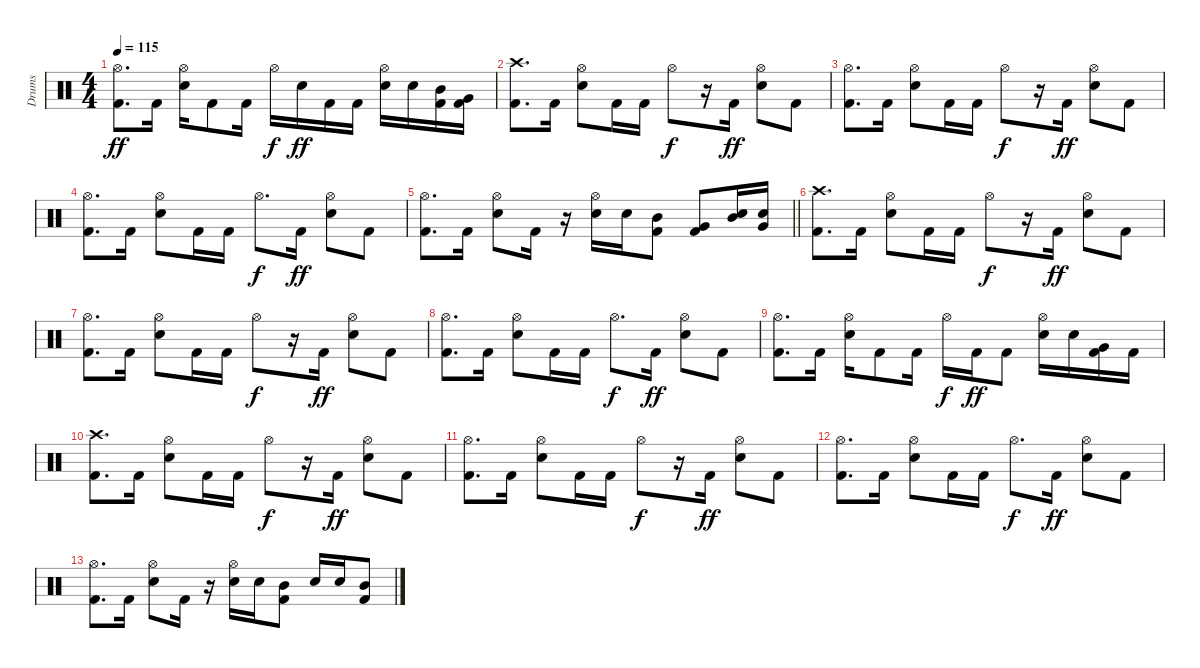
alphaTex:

\track ("Drums" "Drums") {instrument percussion}
\staff {score}
\articulation defaults
\ts (4 4)
\tempo 115
\clef neutral
\ks c
("Hi-Hat (open)" "Kick (hit) 2").8{d dy ff} "Kick (hit) 2".16 ("Hi-Hat (open)" "Snare (hit) 2").16 "Kick (hit) 2".8 "Kick (hit) 2".16 "Hi-Hat (open)".16{dy f} "Snare (hit) 2".16{dy ff} "Kick (hit) 2".16 "Kick (hit) 2".16 ("Hi-Hat (open)" "Snare (hit) 2").16 "Snare (hit) 2".16 ("Mid Tom (hit)" "Kick (hit) 2").16 ("Very Low Tom (hit)" "Kick (hit) 2").16 |
("Crash high (hit)" "Kick (hit) 2").8{d volume 3} "Kick (hit) 2".16 ("Hi-Hat (open)" "Snare (hit) 2").8 "Kick (hit) 2".16 "Kick (hit) 2".16 "Hi-Hat (open)".8{dy f} r.16 "Kick (hit) 2".16{dy ff} ("Hi-Hat (open)" "Snare (hit) 2").8 "Kick (hit) 2".8 |
("Hi-Hat (open)" "Kick (hit) 2").8{d} "Kick (hit) 2".16 ("Hi-Hat (open)" "Snare (hit) 2").8 "Kick (hit) 2".16 "Kick (hit) 2".16 "Hi-Hat (open)".8{dy f} r.16 "Kick (hit) 2".16{dy ff} ("Hi-Hat (open)" "Snare (hit) 2").8 "Kick (hit) 2".8 |
("Hi-Hat (open)" "Kick (hit) 2").8{d} "Kick (hit) 2".16 ("Hi-Hat (open)" "Snare (hit) 2").8 "Kick (hit) 2".16 "Kick (hit) 2".16 "Hi-Hat (open)".8{d dy f} "Kick (hit) 2".16{dy ff} ("Hi-Hat (open)" "Snare (hit) 2").8 "Kick (hit) 2".8 |
\barLineRight lightlight
("Hi-Hat (open)" "Kick (hit) 2").8{d} "Kick (hit) 2".16 ("Hi-Hat (open)" "Snare (hit) 2").8 "Kick (hit) 2".16 r.16 ("Hi-Hat (open)" "Snare (hit) 2").16 "Snare (hit) 2".16 ("Mid Tom (hit)" "Kick (hit) 2").8 ("Very Low Tom (hit)" "Kick (hit) 2").8 ("Snare (hit) 2" "Mid Tom (hit)").16 ("Snare (hit) 2" "Very Low Tom (hit)").16 |
("Crash high (hit)" "Kick (hit) 2").8{d volume 1} "Kick (hit) 2".16 ("Hi-Hat (open)" "Snare (hit) 2").8 "Kick (hit) 2".16 "Kick (hit) 2".16 "Hi-Hat (open)".8{dy f} r.16 "Kick (hit) 2".16{dy ff} ("Hi-Hat (open)" "Snare (hit) 2").8 "Kick (hit) 2".8 |
("Hi-Hat (open)" "Kick (hit) 2").8{d} "Kick (hit) 2".16 ("Hi-Hat (open)" "Snare (hit) 2").8 "Kick (hit) 2".16 "Kick (hit) 2".16 "Hi-Hat (open)".8{dy f} r.16 "Kick (hit) 2".16{dy ff} ("Hi-Hat (open)" "Snare (hit) 2").8 "Kick (hit) 2".8 |
("Hi-Hat (open)" "Kick (hit) 2").8{d} "Kick (hit) 2".16 ("Hi-Hat (open)" "Snare (hit) 2").8 "Kick (hit) 2".16 "Kick (hit) 2".16 "Hi-Hat (open)".8{d dy f} "Kick (hit) 2".16{dy ff} ("Hi-Hat (open)" "Snare (hit) 2").8 "Kick (hit) 2".8 |
("Hi-Hat (open)" "Kick (hit) 2").8{d} "Kick (hit) 2".16 ("Hi-Hat (open)" "Snare (hit) 2").16 "Kick (hit) 2".8 "Kick (hit) 2".16 "Hi-Hat (open)".16{dy f} "Kick (hit) 2".16{dy ff} "Kick (hit) 2".8 ("Hi-Hat (open)" "Snare (hit) 2").16 "Snare (hit) 2".16 ("Very Low Tom (hit)" "Kick (hit) 2").16 "Kick (hit) 2".16 |
("Crash high (hit)" "Kick (hit) 2").8{d volume 0} "Kick (hit) 2".16 ("Hi-Hat (open)" "Snare (hit) 2").8 "Kick (hit) 2".16 "Kick (hit) 2".16 "Hi-Hat (open)".8{dy f} r.16 "Kick (hit) 2".16{dy ff} ("Hi-Hat (open)" "Snare (hit) 2").8 "Kick (hit) 2".8 |
("Hi-Hat (open)" "Kick (hit) 2").8{d} "Kick (hit) 2".16 ("Hi-Hat (open)" "Snare (hit) 2").8 "Kick (hit) 2".16 "Kick (hit) 2".16 "Hi-Hat (open)".8{dy f} r.16 "Kick (hit) 2".16{dy ff} ("Hi-Hat (open)" "Snare (hit) 2").8 "Kick (hit) 2".8 |
("Hi-Hat (open)" "Kick (hit) 2").8{d} "Kick (hit) 2".16 ("Hi-Hat (open)" "Snare (hit) 2").8 "Kick (hit) 2".16 "Kick (hit) 2".16 "Hi-Hat (open)".8{d dy f} "Kick (hit) 2".16{dy ff} ("Hi-Hat (open)" "Snare (hit) 2").8 "Kick (hit) 2".8 |
("Hi-Hat (open)" "Kick (hit) 2").8{d} "Kick (hit) 2".16 ("Hi-Hat (open)" "Snare (hit) 2").8 "Kick (hit) 2".16 r.16 ("Hi-Hat (open)" "Snare (hit) 2").16 "Snare (hit) 2".16 ("Mid Tom (hit)" "Kick (hit) 2").8 "Snare (hit) 2".16 "Snare (hit) 2".16 ("Mid Tom (hit)" "Kick (hit) 2").8
